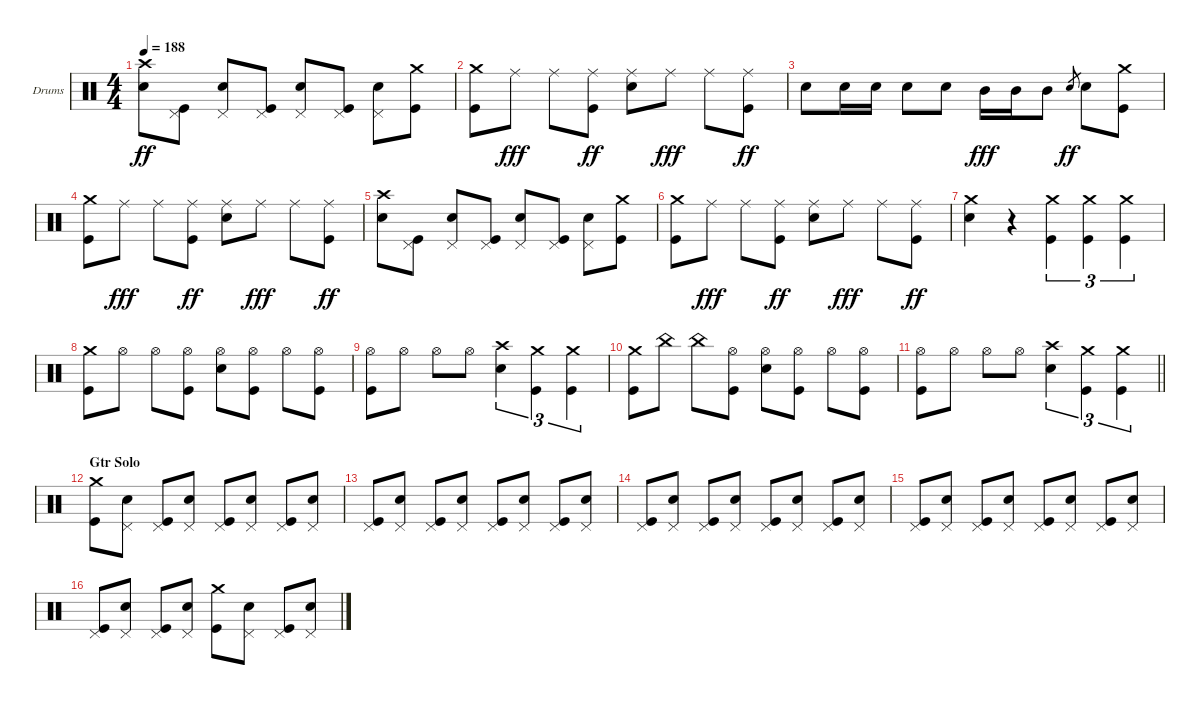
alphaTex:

\bracketExtendMode groupsimilarinstruments
\firstSystemTrackNameOrientation horizontal
\otherSystemsTrackNameOrientation horizontal
\track ("Drums" "Drums") {instrument percussion}
\staff {score}
\articulation defaults
\ts (4 4)
\tempo 188
\clef neutral
\ks c
("Snare (hit) 2" "Crash high (hit)").8{dy ff} ("Kick (hit)" "Pedal Hi-Hat (hit)").8 ("Snare (hit) 2" "Pedal Hi-Hat (hit)").8 ("Kick (hit)" "Pedal Hi-Hat (hit)").8 ("Snare (hit) 2" "Pedal Hi-Hat (hit)").8 ("Kick (hit)" "Pedal Hi-Hat (hit)").8 ("Snare (hit) 2" "Pedal Hi-Hat (hit)").8 ("Kick (hit)" "Crash medium (hit)").8 |
("Kick (hit)" "Crash medium (hit)").8 "Ride (middle)".8{dy fff} "Ride (middle)".8 ("Kick (hit)" "Ride (middle)").8{dy ff} ("Snare (hit) 2" "Ride (middle)").8 "Ride (middle)".8{dy fff} "Ride (middle)".8 ("Ride (middle)" "Kick (hit)").8{dy ff} |
"Snare (hit) 2".8 "Snare (hit) 2".16 "Snare (hit) 2".16 "Snare (hit) 2".8 "Snare (hit) 2".8 "Mid Tom (hit)".16{dy fff} "Mid Tom (hit)".16 "Mid Tom (hit)".8 "Snare (hit) 2".8{gr dy ff} "Snare (hit) 2".8 ("Kick (hit)" "Crash medium (hit)").8 |
("Kick (hit)" "Crash medium (hit)").8 "Ride (middle)".8{dy fff} "Ride (middle)".8 ("Kick (hit)" "Ride (middle)").8{dy ff} ("Snare (hit) 2" "Ride (middle)").8 "Ride (middle)".8{dy fff} "Ride (middle)".8 ("Ride (middle)" "Kick (hit)").8{dy ff} |
("Snare (hit) 2" "Crash high (hit)").8 ("Kick (hit)" "Pedal Hi-Hat (hit)").8 ("Snare (hit) 2" "Pedal Hi-Hat (hit)").8 ("Kick (hit)" "Pedal Hi-Hat (hit)").8 ("Snare (hit) 2" "Pedal Hi-Hat (hit)").8 ("Kick (hit)" "Pedal Hi-Hat (hit)").8 ("Snare (hit) 2" "Pedal Hi-Hat (hit)").8 ("Kick (hit)" "Crash medium (hit)").8 |
("Kick (hit)" "Crash medium (hit)").8 "Ride (middle)".8{dy fff} "Ride (middle)".8 ("Kick (hit)" "Ride (middle)").8{dy ff} ("Snare (hit) 2" "Ride (middle)").8 "Ride (middle)".8{dy fff} "Ride (middle)".8 ("Ride (middle)" "Kick (hit)").8{dy ff} |
("Snare (hit) 2" "Crash medium (hit)").4 r.4 ("Kick (hit)" "Crash medium (hit)").4{tu (3 2)} ("Kick (hit)" "Crash medium (hit)").4{tu (3 2)} ("Kick (hit)" "Crash medium (hit)").4{tu (3 2)} |
("Kick (hit)" "Crash medium (hit)").8 "Hi-Hat (open)".8 "Hi-Hat (open)".8 ("Hi-Hat (open)" "Kick (hit)").8 ("Snare (hit) 2" "Hi-Hat (open)").8 ("Hi-Hat (open)" "Kick (hit)").8 "Hi-Hat (open)".8 ("Hi-Hat (open)" "Kick (hit)").8 |
("Kick (hit)" "Hi-Hat (open)").8 "Hi-Hat (open)".8 "Hi-Hat (open)".8 "Hi-Hat (open)".8 ("Snare (hit) 2" "Crash high (hit)").4{tu (3 2)} ("Kick (hit)" "Crash medium (hit)").4{tu (3 2)} ("Kick (hit)" "Crash medium (hit)").4{tu (3 2)} |
("Kick (hit)" "Crash medium (hit)").8 "China (hit)".8 "China (hit)".8 ("Hi-Hat (open)" "Kick (hit)").8 ("Snare (hit) 2" "Hi-Hat (open)").8 ("Hi-Hat (open)" "Kick (hit)").8 "Hi-Hat (open)".8 ("Hi-Hat (open)" "Kick (hit)").8 |
\barLineRight lightlight
("Kick (hit)" "Hi-Hat (open)").8 "Hi-Hat (open)".8 "Hi-Hat (open)".8 "Hi-Hat (open)".8 ("Snare (hit) 2" "Crash high (hit)").4{tu (3 2)} ("Kick (hit)" "Crash medium (hit)").4{tu (3 2)} ("Kick (hit)" "Crash medium (hit)").4{tu (3 2)} |
\section ("" "Gtr Solo")
("Kick (hit)" "Crash medium (hit)").8 ("Snare (hit) 2" "Pedal Hi-Hat (hit)").8 ("Kick (hit)" "Pedal Hi-Hat (hit)").8 ("Snare (hit) 2" "Pedal Hi-Hat (hit)").8 ("Kick (hit)" "Pedal Hi-Hat (hit)").8 ("Snare (hit) 2" "Pedal Hi-Hat (hit)").8 ("Kick (hit)" "Pedal Hi-Hat (hit)").8 ("Snare (hit) 2" "Pedal Hi-Hat (hit)").8 |
("Kick (hit)" "Pedal Hi-Hat (hit)").8 ("Snare (hit) 2" "Pedal Hi-Hat (hit)").8 ("Kick (hit)" "Pedal Hi-Hat (hit)").8 ("Snare (hit) 2" "Pedal Hi-Hat (hit)").8 ("Kick (hit)" "Pedal Hi-Hat (hit)").8 ("Snare (hit) 2" "Pedal Hi-Hat (hit)").8 ("Kick (hit)" "Pedal Hi-Hat (hit)").8 ("Snare (hit) 2" "Pedal Hi-Hat (hit)").8 |
("Kick (hit)" "Pedal Hi-Hat (hit)").8 ("Snare (hit) 2" "Pedal Hi-Hat (hit)").8 ("Kick (hit)" "Pedal Hi-Hat (hit)").8 ("Snare (hit) 2" "Pedal Hi-Hat (hit)").8 ("Kick (hit)" "Pedal Hi-Hat (hit)").8 ("Snare (hit) 2" "Pedal Hi-Hat (hit)").8 ("Kick (hit)" "Pedal Hi-Hat (hit)").8 ("Snare (hit) 2" "Pedal Hi-Hat (hit)").8 |
("Kick (hit)" "Pedal Hi-Hat (hit)").8 ("Snare (hit) 2" "Pedal Hi-Hat (hit)").8 ("Kick (hit)" "Pedal Hi-Hat (hit)").8 ("Snare (hit) 2" "Pedal Hi-Hat (hit)").8 ("Kick (hit)" "Pedal Hi-Hat (hit)").8 ("Snare (hit) 2" "Pedal Hi-Hat (hit)").8 ("Kick (hit)" "Pedal Hi-Hat (hit)").8 ("Snare (hit) 2" "Pedal Hi-Hat (hit)").8 |
("Kick (hit)" "Pedal Hi-Hat (hit)").8 ("Snare (hit) 2" "Pedal Hi-Hat (hit)").8 ("Kick (hit)" "Pedal Hi-Hat (hit)").8 ("Snare (hit) 2" "Pedal Hi-Hat (hit)").8 ("Kick (hit)" "Crash medium (hit)").8 ("Snare (hit) 2" "Pedal Hi-Hat (hit)").8 ("Kick (hit)" "Pedal Hi-Hat (hit)").8 ("Snare (hit) 2" "Pedal Hi-Hat (hit)").8
